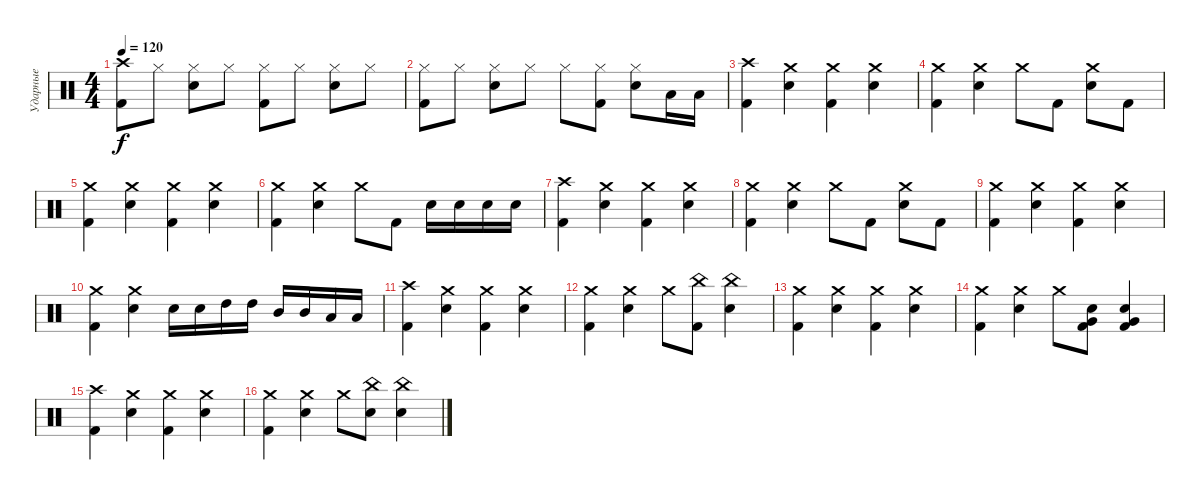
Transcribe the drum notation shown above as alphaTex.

\track ("Ударные" "Ударные") {instrument percussion}
\staff {score}
\articulation defaults
\ts (4 4)
\tempo 120
\clef neutral
\ks c
("Crash high (hit)" "Kick (hit) 2").8{dy f} "Hi-Hat (closed)".8 ("Hi-Hat (closed)" "Electric Snare (hit)").8 "Hi-Hat (closed)".8 ("Hi-Hat (closed)" "Kick (hit) 2").8 "Hi-Hat (closed)".8 ("Hi-Hat (closed)" "Electric Snare (hit)").8 "Hi-Hat (closed)".8 |
("Hi-Hat (closed)" "Kick (hit) 2").8 "Hi-Hat (closed)".8 ("Hi-Hat (closed)" "Electric Snare (hit)").8 "Hi-Hat (closed)".8 "Hi-Hat (closed)".8 ("Hi-Hat (closed)" "Kick (hit) 2").8 ("Hi-Hat (closed)" "Electric Snare (hit)").8 "Low Tom (hit)".16 "Low Tom (hit)".16 |
("Crash high (hit)" "Kick (hit) 2").4 ("Crash medium (hit)" "Electric Snare (hit)").4 ("Crash medium (hit)" "Kick (hit) 2").4 ("Crash medium (hit)" "Electric Snare (hit)").4 |
("Crash medium (hit)" "Kick (hit) 2").4 ("Crash medium (hit)" "Electric Snare (hit)").4 "Crash medium (hit)".8 "Kick (hit) 2".8 ("Crash medium (hit)" "Electric Snare (hit)").8 "Kick (hit) 2".8 |
("Crash medium (hit)" "Kick (hit) 2").4 ("Crash medium (hit)" "Electric Snare (hit)").4 ("Crash medium (hit)" "Kick (hit) 2").4 ("Crash medium (hit)" "Electric Snare (hit)").4 |
("Crash medium (hit)" "Kick (hit) 2").4 ("Crash medium (hit)" "Electric Snare (hit)").4 "Crash medium (hit)".8 "Kick (hit) 2".8 "Electric Snare (hit)".16 "Electric Snare (hit)".16 "Electric Snare (hit)".16 "Electric Snare (hit)".16 |
("Crash high (hit)" "Kick (hit) 2").4 ("Crash medium (hit)" "Electric Snare (hit)").4 ("Crash medium (hit)" "Kick (hit) 2").4 ("Crash medium (hit)" "Electric Snare (hit)").4 |
("Crash medium (hit)" "Kick (hit) 2").4 ("Crash medium (hit)" "Electric Snare (hit)").4 "Crash medium (hit)".8 "Kick (hit) 2".8 ("Crash medium (hit)" "Electric Snare (hit)").8 "Kick (hit) 2".8 |
("Crash medium (hit)" "Kick (hit) 2").4 ("Crash medium (hit)" "Electric Snare (hit)").4 ("Crash medium (hit)" "Kick (hit) 2").4 ("Crash medium (hit)" "Electric Snare (hit)").4 |
("Crash medium (hit)" "Kick (hit) 2").4 ("Crash medium (hit)" "Electric Snare (hit)").4 "Electric Snare (hit)".16 "Electric Snare (hit)".16 "High Tom (hit)".16 "High Tom (hit)".16 "Mid Tom (hit)".16 "Mid Tom (hit)".16 "Low Tom (hit)".16 "Low Tom (hit)".16 |
("Crash high (hit)" "Kick (hit) 2").4 ("Crash medium (hit)" "Electric Snare (hit)").4 ("Crash medium (hit)" "Kick (hit) 2").4 ("Crash medium (hit)" "Electric Snare (hit)").4 |
("Crash medium (hit)" "Kick (hit) 2").4 ("Crash medium (hit)" "Electric Snare (hit)").4 "Crash medium (hit)".8 ("China (hit)" "Kick (hit) 2").8 ("China (hit)" "Electric Snare (hit)").4 |
("Crash medium (hit)" "Kick (hit) 2").4 ("Crash medium (hit)" "Electric Snare (hit)").4 ("Crash medium (hit)" "Kick (hit) 2").4 ("Crash medium (hit)" "Electric Snare (hit)").4 |
("Crash medium (hit)" "Kick (hit) 2").4 ("Crash medium (hit)" "Electric Snare (hit)").4 "Crash medium (hit)".8 ("Electric Snare (hit)" "Very Low Tom (hit)" "Kick (hit) 2").8 ("Electric Snare (hit)" "Very Low Tom (hit)" "Kick (hit) 2").4 |
("Crash high (hit)" "Kick (hit) 2").4 ("Crash medium (hit)" "Electric Snare (hit)").4 ("Crash medium (hit)" "Kick (hit) 2").4 ("Crash medium (hit)" "Electric Snare (hit)").4 |
("Crash medium (hit)" "Kick (hit) 2").4 ("Crash medium (hit)" "Electric Snare (hit)").4 "Crash medium (hit)".8 ("China (hit)" "Electric Snare (hit)").8 ("China (hit)" "Electric Snare (hit)").4
